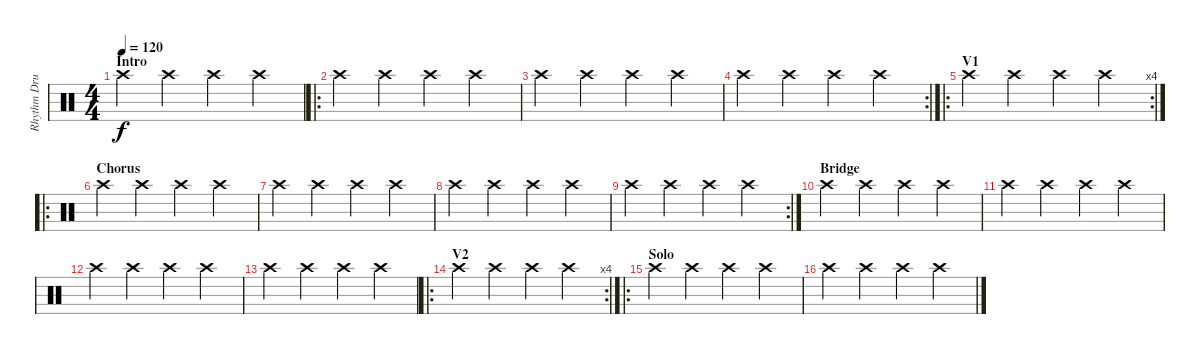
\track ("Rhythm Drums" "Rhythm Dru") {instrument percussion}
\staff {score}
\articulation defaults
\ts (4 4)
\section ("" "Intro")
\tempo 120
\clef neutral
\ks c "Crash high (hit)".4{dy f} "Crash high (hit)".4 "Crash high (hit)".4 "Crash high (hit)".4
|
\ro "Crash high (hit)".4 "Crash high (hit)".4 "Crash high (hit)".4 "Crash high (hit)".4
|
"Crash high (hit)".4 "Crash high (hit)".4 "Crash high (hit)".4 "Crash high (hit)".4 |
\rc 2 "Crash high (hit)".4 "Crash high (hit)".4 "Crash high (hit)".4 "Crash high (hit)".4
|
\ro
\rc 4
\section ("" "V1")
"Crash high (hit)".4 "Crash high (hit)".4 "Crash high (hit)".4 "Crash high (hit)".4 |
\ro
\section ("" "Chorus")
"Crash high (hit)".4 "Crash high (hit)".4 "Crash high (hit)".4 "Crash high (hit)".4 |
"Crash high (hit)".4 "Crash high (hit)".4 "Crash high (hit)".4 "Crash high (hit)".4 |
"Crash high (hit)".4 "Crash high (hit)".4 "Crash high (hit)".4 "Crash high (hit)".4 |
\rc 2 "Crash high (hit)".4 "Crash high (hit)".4 "Crash high (hit)".4 "Crash high (hit)".4
|
\section ("" "Bridge")
"Crash high (hit)".4 "Crash high (hit)".4 "Crash high (hit)".4 "Crash high (hit)".4 |
"Crash high (hit)".4 "Crash high (hit)".4 "Crash high (hit)".4 "Crash high (hit)".4 |
"Crash high (hit)".4 "Crash high (hit)".4 "Crash high (hit)".4 "Crash high (hit)".4 |
"Crash high (hit)".4 "Crash high (hit)".4 "Crash high (hit)".4 "Crash high (hit)".4 |
\ro
\rc 4
\section ("" "V2")
"Crash high (hit)".4 "Crash high (hit)".4 "Crash high (hit)".4 "Crash high (hit)".4 |
\ro
\section ("" "Solo")
"Crash high (hit)".4 "Crash high (hit)".4 "Crash high (hit)".4 "Crash high (hit)".4 |
"Crash high (hit)".4 "Crash high (hit)".4 "Crash high (hit)".4 "Crash high (hit)".4
